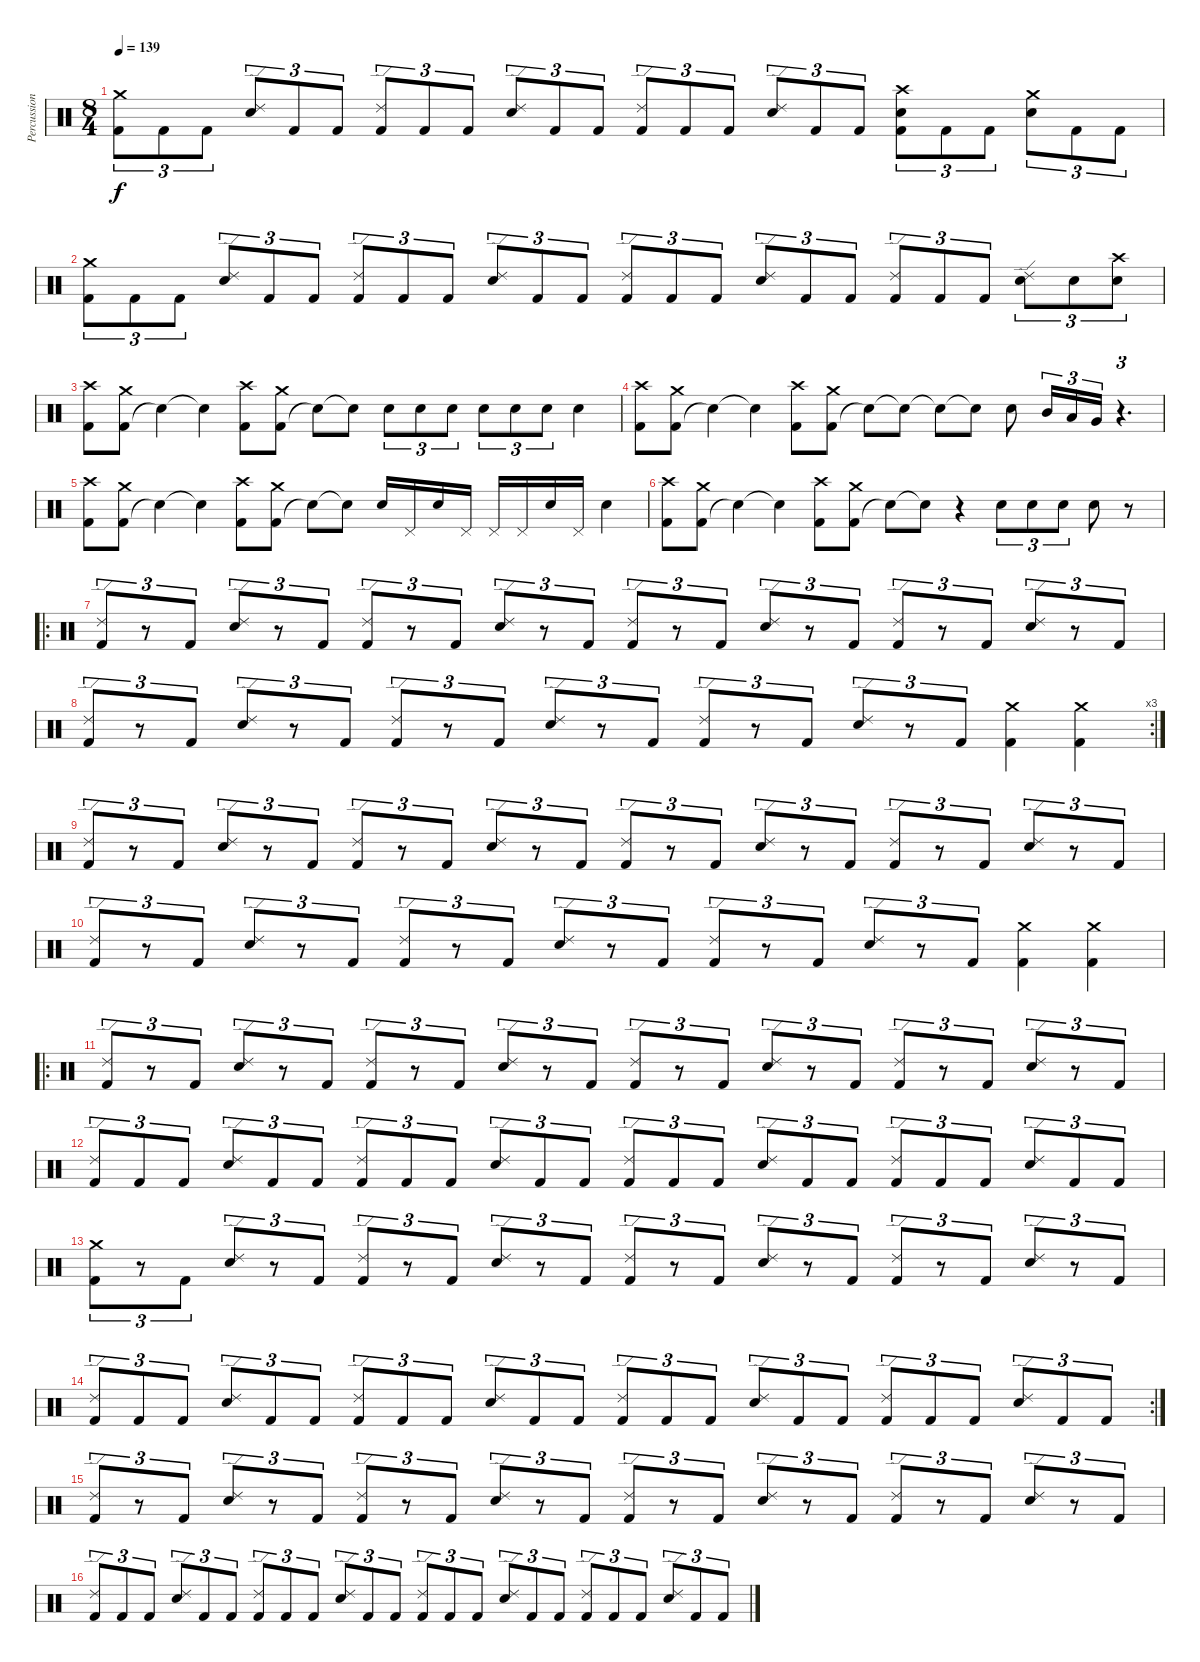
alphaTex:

\track ("Percussion" "Percussion") {instrument percussion}
\staff {score}
\articulation defaults
\ts (8 4)
\tempo 139
\clef neutral
\ks c
("Kick (hit) 2" "Crash medium (hit)").8{tu (3 2) dy f} "Kick (hit) 2".8{tu (3 2)} "Kick (hit) 2".8{tu (3 2)} ("Snare (hit) 2" "Ride (edge) 2").8{tu (3 2)} "Kick (hit) 2".8{tu (3 2)} "Kick (hit) 2".8{tu (3 2)} ("Kick (hit) 2" "Ride (edge) 2").8{tu (3 2)} "Kick (hit) 2".8{tu (3 2)} "Kick (hit) 2".8{tu (3 2)} ("Snare (hit) 2" "Ride (edge) 2").8{tu (3 2)} "Kick (hit) 2".8{tu (3 2)} "Kick (hit) 2".8{tu (3 2)} ("Kick (hit) 2" "Ride (edge) 2").8{tu (3 2)} "Kick (hit) 2".8{tu (3 2)} "Kick (hit) 2".8{tu (3 2)} ("Snare (hit) 2" "Ride (edge) 2").8{tu (3 2)} "Kick (hit) 2".8{tu (3 2)} "Kick (hit) 2".8{tu (3 2)} ("Kick (hit) 2" "Snare (hit) 2" "Crash high (hit)").8{tu (3 2)} "Kick (hit) 2".8{tu (3 2)} "Kick (hit) 2".8{tu (3 2)} ("Snare (hit) 2" "Crash medium (hit)").8{tu (3 2)} "Kick (hit) 2".8{tu (3 2)} "Kick (hit) 2".8{tu (3 2)} |
("Kick (hit) 2" "Crash medium (hit)").8{tu (3 2)} "Kick (hit) 2".8{tu (3 2)} "Kick (hit) 2".8{tu (3 2)} ("Snare (hit) 2" "Ride (edge) 2").8{tu (3 2)} "Kick (hit) 2".8{tu (3 2)} "Kick (hit) 2".8{tu (3 2)} ("Kick (hit) 2" "Ride (edge) 2").8{tu (3 2)} "Kick (hit) 2".8{tu (3 2)} "Kick (hit) 2".8{tu (3 2)} ("Snare (hit) 2" "Ride (edge) 2").8{tu (3 2)} "Kick (hit) 2".8{tu (3 2)} "Kick (hit) 2".8{tu (3 2)} ("Kick (hit) 2" "Ride (edge) 2").8{tu (3 2)} "Kick (hit) 2".8{tu (3 2)} "Kick (hit) 2".8{tu (3 2)} ("Snare (hit) 2" "Ride (edge) 2").8{tu (3 2)} "Kick (hit) 2".8{tu (3 2)} "Kick (hit) 2".8{tu (3 2)} ("Kick (hit) 2" "Ride (edge) 2").8{tu (3 2)} "Kick (hit) 2".8{tu (3 2)} "Kick (hit) 2".8{tu (3 2)} ("Snare (hit) 2" "Ride (edge) 2").8{tu (3 2)} "Snare (hit) 2".8{tu (3 2)} ("Crash high (hit)" "Snare (hit) 2").8{tu (3 2)} |
("Kick (hit) 2" "Crash high (hit)").8 ("Kick (hit) 2" "Crash medium (hit)").8 "Snare (hit)"{t}.4 "Snare (hit)"{t}.4 ("Kick (hit) 2" "Crash high (hit)").8 ("Kick (hit) 2" "Crash medium (hit)").8 "Snare (hit)"{t}.8 "Snare (hit) 2"{t}.8 "Snare (hit) 2".8{tu (3 2)} "Snare (hit) 2".8{tu (3 2)} "Snare (hit) 2".8{tu (3 2)} "Snare (hit) 2".8{tu (3 2)} "Snare (hit) 2".8{tu (3 2)} "Snare (hit) 2".8{tu (3 2)} "Snare (hit) 2".4 |
("Kick (hit) 2" "Crash high (hit)").8 ("Kick (hit) 2" "Crash medium (hit)").8 "Snare (hit)"{t}.4 "Snare (hit)"{t}.4 ("Kick (hit) 2" "Crash high (hit)").8 ("Kick (hit) 2" "Crash medium (hit)").8 "Snare (hit)"{t}.8 "Snare (hit) 2"{t}.8 "Snare (hit) 2"{t}.8 "Snare (hit)"{t}.8 "Snare (hit) 2".8 "Mid Tom (hit)".16{tu (3 2)} "Low Tom (hit)".16{tu (3 2)} "Very Low Tom (hit)".16{tu (3 2)} r.4{d tu (3 2)} |
("Kick (hit) 2" "Crash high (hit)").8 ("Kick (hit) 2" "Crash medium (hit)").8 "Snare (hit)"{t}.4 "Snare (hit)"{t}.4 ("Kick (hit) 2" "Crash high (hit)").8 ("Kick (hit) 2" "Crash medium (hit)").8 "Snare (hit)"{t}.8 "Snare (hit) 2"{t}.8 "Snare (hit) 2".16 "Pedal Hi-Hat (hit)".16 "Snare (hit) 2".16 "Pedal Hi-Hat (hit)".16 "Pedal Hi-Hat (hit)".16 "Pedal Hi-Hat (hit)".16 "Snare (hit) 2".16 "Pedal Hi-Hat (hit)".16 "Snare (hit) 2".4 |
("Kick (hit) 2" "Crash high (hit)").8 ("Kick (hit) 2" "Crash medium (hit)").8 "Snare (hit)"{t}.4 "Snare (hit)"{t}.4 ("Kick (hit) 2" "Crash high (hit)").8 ("Kick (hit) 2" "Crash medium (hit)").8 "Snare (hit)"{t}.8 "Snare (hit) 2"{t}.8 r.4 "Snare (hit) 2".8{tu (3 2)} "Snare (hit) 2".8{tu (3 2)} "Snare (hit) 2".8{tu (3 2)} "Snare (hit) 2".8 r.8 |
\ro
("Kick (hit) 2" "Ride (edge) 2").8{tu (3 2)} r.8{tu (3 2)} "Kick (hit) 2".8{tu (3 2)} ("Snare (hit) 2" "Ride (edge) 2").8{tu (3 2)} r.8{tu (3 2)} "Kick (hit) 2".8{tu (3 2)} ("Kick (hit) 2" "Ride (edge) 2").8{tu (3 2)} r.8{tu (3 2)} "Kick (hit) 2".8{tu (3 2)} ("Snare (hit) 2" "Ride (edge) 2").8{tu (3 2)} r.8{tu (3 2)} "Kick (hit) 2".8{tu (3 2)} ("Kick (hit) 2" "Ride (edge) 2").8{tu (3 2)} r.8{tu (3 2)} "Kick (hit) 2".8{tu (3 2)} ("Snare (hit) 2" "Ride (edge) 2").8{tu (3 2)} r.8{tu (3 2)} "Kick (hit) 2".8{tu (3 2)} ("Kick (hit) 2" "Ride (edge) 2").8{tu (3 2)} r.8{tu (3 2)} "Kick (hit) 2".8{tu (3 2)} ("Snare (hit) 2" "Ride (edge) 2").8{tu (3 2)} r.8{tu (3 2)} "Kick (hit) 2".8{tu (3 2)} |
\rc 3
("Kick (hit) 2" "Ride (edge) 2").8{tu (3 2)} r.8{tu (3 2)} "Kick (hit) 2".8{tu (3 2)} ("Snare (hit) 2" "Ride (edge) 2").8{tu (3 2)} r.8{tu (3 2)} "Kick (hit) 2".8{tu (3 2)} ("Kick (hit) 2" "Ride (edge) 2").8{tu (3 2)} r.8{tu (3 2)} "Kick (hit) 2".8{tu (3 2)} ("Snare (hit) 2" "Ride (edge) 2").8{tu (3 2)} r.8{tu (3 2)} "Kick (hit) 2".8{tu (3 2)} ("Kick (hit) 2" "Ride (edge) 2").8{tu (3 2)} r.8{tu (3 2)} "Kick (hit) 2".8{tu (3 2)} ("Snare (hit) 2" "Ride (edge) 2").8{tu (3 2)} r.8{tu (3 2)} "Kick (hit) 2".8{tu (3 2)} ("Kick (hit) 2" "Crash medium (hit)").4 ("Kick (hit) 2" "Crash medium (hit)").4 |
("Kick (hit) 2" "Ride (edge) 2").8{tu (3 2)} r.8{tu (3 2)} "Kick (hit) 2".8{tu (3 2)} ("Snare (hit) 2" "Ride (edge) 2").8{tu (3 2)} r.8{tu (3 2)} "Kick (hit) 2".8{tu (3 2)} ("Kick (hit) 2" "Ride (edge) 2").8{tu (3 2)} r.8{tu (3 2)} "Kick (hit) 2".8{tu (3 2)} ("Snare (hit) 2" "Ride (edge) 2").8{tu (3 2)} r.8{tu (3 2)} "Kick (hit) 2".8{tu (3 2)} ("Kick (hit) 2" "Ride (edge) 2").8{tu (3 2)} r.8{tu (3 2)} "Kick (hit) 2".8{tu (3 2)} ("Snare (hit) 2" "Ride (edge) 2").8{tu (3 2)} r.8{tu (3 2)} "Kick (hit) 2".8{tu (3 2)} ("Kick (hit) 2" "Ride (edge) 2").8{tu (3 2)} r.8{tu (3 2)} "Kick (hit) 2".8{tu (3 2)} ("Snare (hit) 2" "Ride (edge) 2").8{tu (3 2)} r.8{tu (3 2)} "Kick (hit) 2".8{tu (3 2)} |
("Kick (hit) 2" "Ride (edge) 2").8{tu (3 2)} r.8{tu (3 2)} "Kick (hit) 2".8{tu (3 2)} ("Snare (hit) 2" "Ride (edge) 2").8{tu (3 2)} r.8{tu (3 2)} "Kick (hit) 2".8{tu (3 2)} ("Kick (hit) 2" "Ride (edge) 2").8{tu (3 2)} r.8{tu (3 2)} "Kick (hit) 2".8{tu (3 2)} ("Snare (hit) 2" "Ride (edge) 2").8{tu (3 2)} r.8{tu (3 2)} "Kick (hit) 2".8{tu (3 2)} ("Kick (hit) 2" "Ride (edge) 2").8{tu (3 2)} r.8{tu (3 2)} "Kick (hit) 2".8{tu (3 2)} ("Snare (hit) 2" "Ride (edge) 2").8{tu (3 2)} r.8{tu (3 2)} "Kick (hit) 2".8{tu (3 2)} ("Kick (hit) 2" "Crash medium (hit)").4 ("Kick (hit) 2" "Crash medium (hit)").4 |
\ro
("Kick (hit) 2" "Ride (edge) 2").8{tu (3 2)} r.8{tu (3 2)} "Kick (hit) 2".8{tu (3 2)} ("Snare (hit) 2" "Ride (edge) 2").8{tu (3 2)} r.8{tu (3 2)} "Kick (hit) 2".8{tu (3 2)} ("Kick (hit) 2" "Ride (edge) 2").8{tu (3 2)} r.8{tu (3 2)} "Kick (hit) 2".8{tu (3 2)} ("Snare (hit) 2" "Ride (edge) 2").8{tu (3 2)} r.8{tu (3 2)} "Kick (hit) 2".8{tu (3 2)} ("Kick (hit) 2" "Ride (edge) 2").8{tu (3 2)} r.8{tu (3 2)} "Kick (hit) 2".8{tu (3 2)} ("Snare (hit) 2" "Ride (edge) 2").8{tu (3 2)} r.8{tu (3 2)} "Kick (hit) 2".8{tu (3 2)} ("Kick (hit) 2" "Ride (edge) 2").8{tu (3 2)} r.8{tu (3 2)} "Kick (hit) 2".8{tu (3 2)} ("Snare (hit) 2" "Ride (edge) 2").8{tu (3 2)} r.8{tu (3 2)} "Kick (hit) 2".8{tu (3 2)} |
("Kick (hit) 2" "Ride (edge) 2").8{tu (3 2)} "Kick (hit) 2".8{tu (3 2)} "Kick (hit) 2".8{tu (3 2)} ("Snare (hit) 2" "Ride (edge) 2").8{tu (3 2)} "Kick (hit) 2".8{tu (3 2)} "Kick (hit) 2".8{tu (3 2)} ("Kick (hit) 2" "Ride (edge) 2").8{tu (3 2)} "Kick (hit) 2".8{tu (3 2)} "Kick (hit) 2".8{tu (3 2)} ("Snare (hit) 2" "Ride (edge) 2").8{tu (3 2)} "Kick (hit) 2".8{tu (3 2)} "Kick (hit) 2".8{tu (3 2)} ("Kick (hit) 2" "Ride (edge) 2").8{tu (3 2)} "Kick (hit) 2".8{tu (3 2)} "Kick (hit) 2".8{tu (3 2)} ("Snare (hit) 2" "Ride (edge) 2").8{tu (3 2)} "Kick (hit) 2".8{tu (3 2)} "Kick (hit) 2".8{tu (3 2)} ("Kick (hit) 2" "Ride (edge) 2").8{tu (3 2)} "Kick (hit) 2".8{tu (3 2)} "Kick (hit) 2".8{tu (3 2)} ("Snare (hit) 2" "Ride (edge) 2").8{tu (3 2)} "Kick (hit) 2".8{tu (3 2)} "Kick (hit) 2".8{tu (3 2)} |
("Kick (hit) 2" "Crash medium (hit)").8{tu (3 2)} r.8{tu (3 2)} "Kick (hit) 2".8{tu (3 2)} ("Snare (hit) 2" "Ride (edge) 2").8{tu (3 2)} r.8{tu (3 2)} "Kick (hit) 2".8{tu (3 2)} ("Kick (hit) 2" "Ride (edge) 2").8{tu (3 2)} r.8{tu (3 2)} "Kick (hit) 2".8{tu (3 2)} ("Snare (hit) 2" "Ride (edge) 2").8{tu (3 2)} r.8{tu (3 2)} "Kick (hit) 2".8{tu (3 2)} ("Kick (hit) 2" "Ride (edge) 2").8{tu (3 2)} r.8{tu (3 2)} "Kick (hit) 2".8{tu (3 2)} ("Snare (hit) 2" "Ride (edge) 2").8{tu (3 2)} r.8{tu (3 2)} "Kick (hit) 2".8{tu (3 2)} ("Kick (hit) 2" "Ride (edge) 2").8{tu (3 2)} r.8{tu (3 2)} "Kick (hit) 2".8{tu (3 2)} ("Snare (hit) 2" "Ride (edge) 2").8{tu (3 2)} r.8{tu (3 2)} "Kick (hit) 2".8{tu (3 2)} |
\rc 2
("Kick (hit) 2" "Ride (edge) 2").8{tu (3 2)} "Kick (hit) 2".8{tu (3 2)} "Kick (hit) 2".8{tu (3 2)} ("Snare (hit) 2" "Ride (edge) 2").8{tu (3 2)} "Kick (hit) 2".8{tu (3 2)} "Kick (hit) 2".8{tu (3 2)} ("Kick (hit) 2" "Ride (edge) 2").8{tu (3 2)} "Kick (hit) 2".8{tu (3 2)} "Kick (hit) 2".8{tu (3 2)} ("Snare (hit) 2" "Ride (edge) 2").8{tu (3 2)} "Kick (hit) 2".8{tu (3 2)} "Kick (hit) 2".8{tu (3 2)} ("Kick (hit) 2" "Ride (edge) 2").8{tu (3 2)} "Kick (hit) 2".8{tu (3 2)} "Kick (hit) 2".8{tu (3 2)} ("Snare (hit) 2" "Ride (edge) 2").8{tu (3 2)} "Kick (hit) 2".8{tu (3 2)} "Kick (hit) 2".8{tu (3 2)} ("Kick (hit) 2" "Ride (edge) 2").8{tu (3 2)} "Kick (hit) 2".8{tu (3 2)} "Kick (hit) 2".8{tu (3 2)} ("Snare (hit) 2" "Ride (edge) 2").8{tu (3 2)} "Kick (hit) 2".8{tu (3 2)} "Kick (hit) 2".8{tu (3 2)} |
("Kick (hit) 2" "Ride (edge) 2").8{tu (3 2)} r.8{tu (3 2)} "Kick (hit) 2".8{tu (3 2)} ("Snare (hit) 2" "Ride (edge) 2").8{tu (3 2)} r.8{tu (3 2)} "Kick (hit) 2".8{tu (3 2)} ("Kick (hit) 2" "Ride (edge) 2").8{tu (3 2)} r.8{tu (3 2)} "Kick (hit) 2".8{tu (3 2)} ("Snare (hit) 2" "Ride (edge) 2").8{tu (3 2)} r.8{tu (3 2)} "Kick (hit) 2".8{tu (3 2)} ("Kick (hit) 2" "Ride (edge) 2").8{tu (3 2)} r.8{tu (3 2)} "Kick (hit) 2".8{tu (3 2)} ("Snare (hit) 2" "Ride (edge) 2").8{tu (3 2)} r.8{tu (3 2)} "Kick (hit) 2".8{tu (3 2)} ("Kick (hit) 2" "Ride (edge) 2").8{tu (3 2)} r.8{tu (3 2)} "Kick (hit) 2".8{tu (3 2)} ("Snare (hit) 2" "Ride (edge) 2").8{tu (3 2)} r.8{tu (3 2)} "Kick (hit) 2".8{tu (3 2)} |
("Kick (hit) 2" "Ride (edge) 2").8{tu (3 2)} "Kick (hit) 2".8{tu (3 2)} "Kick (hit) 2".8{tu (3 2)} ("Snare (hit) 2" "Ride (edge) 2").8{tu (3 2)} "Kick (hit) 2".8{tu (3 2)} "Kick (hit) 2".8{tu (3 2)} ("Kick (hit) 2" "Ride (edge) 2").8{tu (3 2)} "Kick (hit) 2".8{tu (3 2)} "Kick (hit) 2".8{tu (3 2)} ("Snare (hit) 2" "Ride (edge) 2").8{tu (3 2)} "Kick (hit) 2".8{tu (3 2)} "Kick (hit) 2".8{tu (3 2)} ("Kick (hit) 2" "Ride (edge) 2").8{tu (3 2)} "Kick (hit) 2".8{tu (3 2)} "Kick (hit) 2".8{tu (3 2)} ("Snare (hit) 2" "Ride (edge) 2").8{tu (3 2)} "Kick (hit) 2".8{tu (3 2)} "Kick (hit) 2".8{tu (3 2)} ("Kick (hit) 2" "Ride (edge) 2").8{tu (3 2)} "Kick (hit) 2".8{tu (3 2)} "Kick (hit) 2".8{tu (3 2)} ("Snare (hit) 2" "Ride (edge) 2").8{tu (3 2)} "Kick (hit) 2".8{tu (3 2)} "Kick (hit) 2".8{tu (3 2)}
